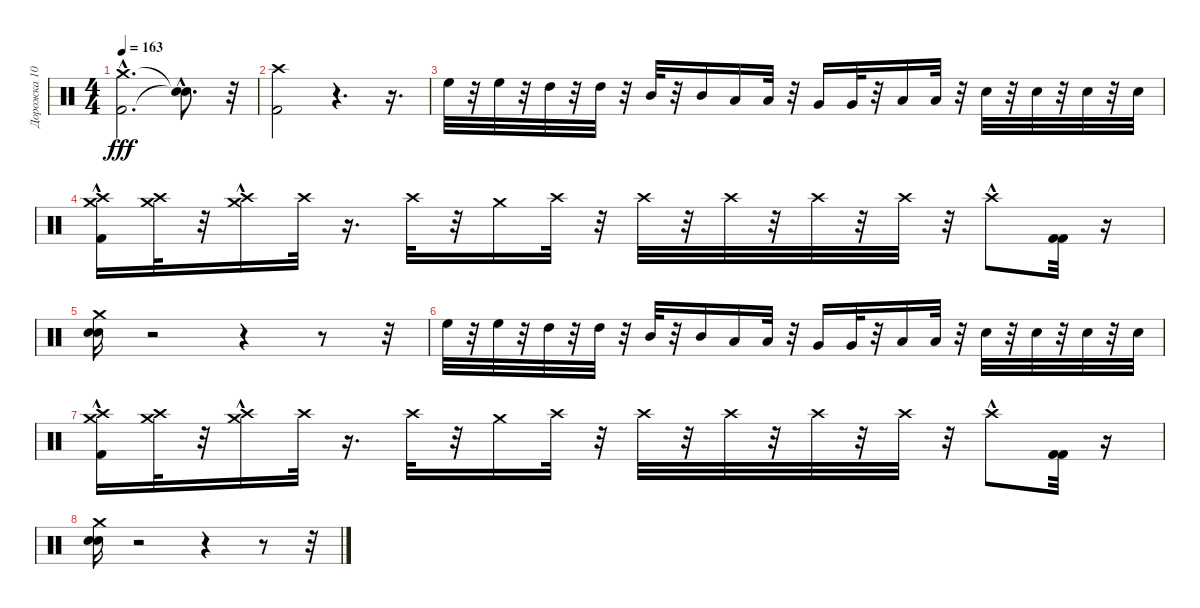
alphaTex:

\track ("Дорожка 10" "Дорожка 10") {instrument percussion}
\staff {score}
\articulation defaults
\ts (4 4)
\tempo 163
\clef neutral
\ks c
("Kick (hit) 2"{hac} "Crash medium (hit)"{hac}).2{d dy fff} ("Snare (hit)"{hac t} "Snare (hit)"{t}).8{d} r.32 |
("Kick (hit) 2" "Crash high (hit)").2 r.4{d} r.16{d} |
"High Floor Tom (hit)".32 r.32 "High Floor Tom (hit)".32 r.32 "High Tom (hit)".32 r.32 "High Tom (hit)".32 r.32 "Mid Tom (hit)".32 r.32 "Mid Tom (hit)".16 "Low Tom (hit)".16 "Low Tom (hit)".32 r.32 "Very Low Tom (hit)".16 "Very Low Tom (hit)".32 r.32 "Low Floor Tom (hit)".16 "Low Floor Tom (hit)".32 r.32 "Electric Snare (hit)".32 r.32 "Electric Snare (hit)".32 r.32 "Electric Snare (hit)".32 r.32 "Electric Snare (hit)".32 |
("Kick (hit) 2"{hac} "Crash medium (hit)" "Crash high (hit)").16 ("Crash medium (hit)" "Crash high (hit)").32 r.32 ("Crash medium (hit)"{hac} "Crash high (hit)").16 "Crash high (hit)".32 r.16{d} "Crash high (hit)".32 r.32 "Crash medium (hit)".16 "Crash high (hit)".32 r.32 "Crash high (hit)".32 r.32 "Crash high (hit)".32 r.32 "Crash high (hit)".32 r.32 "Crash high (hit)".32 r.32 "Crash high (hit)"{hac}.8 ("Kick (hit) 2" "Kick (hit) 2").32 r.16 |
("Electric Snare (hit)" "Crash medium (hit)" "Electric Snare (hit)").16 r.2 r.4 r.8 r.32 |
"High Floor Tom (hit)".32 r.32 "High Floor Tom (hit)".32 r.32 "High Tom (hit)".32 r.32 "High Tom (hit)".32 r.32 "Mid Tom (hit)".32 r.32 "Mid Tom (hit)".16 "Low Tom (hit)".16 "Low Tom (hit)".32 r.32 "Very Low Tom (hit)".16 "Very Low Tom (hit)".32 r.32 "Low Floor Tom (hit)".16 "Low Floor Tom (hit)".32 r.32 "Electric Snare (hit)".32 r.32 "Electric Snare (hit)".32 r.32 "Electric Snare (hit)".32 r.32 "Electric Snare (hit)".32 |
("Kick (hit) 2"{hac} "Crash medium (hit)" "Crash high (hit)").16 ("Crash medium (hit)" "Crash high (hit)").32 r.32 ("Crash medium (hit)"{hac} "Crash high (hit)").16 "Crash high (hit)".32 r.16{d} "Crash high (hit)".32 r.32 "Crash medium (hit)".16 "Crash high (hit)".32 r.32 "Crash high (hit)".32 r.32 "Crash high (hit)".32 r.32 "Crash high (hit)".32 r.32 "Crash high (hit)".32 r.32 "Crash high (hit)"{hac}.8 ("Kick (hit) 2" "Kick (hit) 2").32 r.16 |
("Electric Snare (hit)" "Crash medium (hit)" "Electric Snare (hit)").16 r.2 r.4 r.8 r.32
